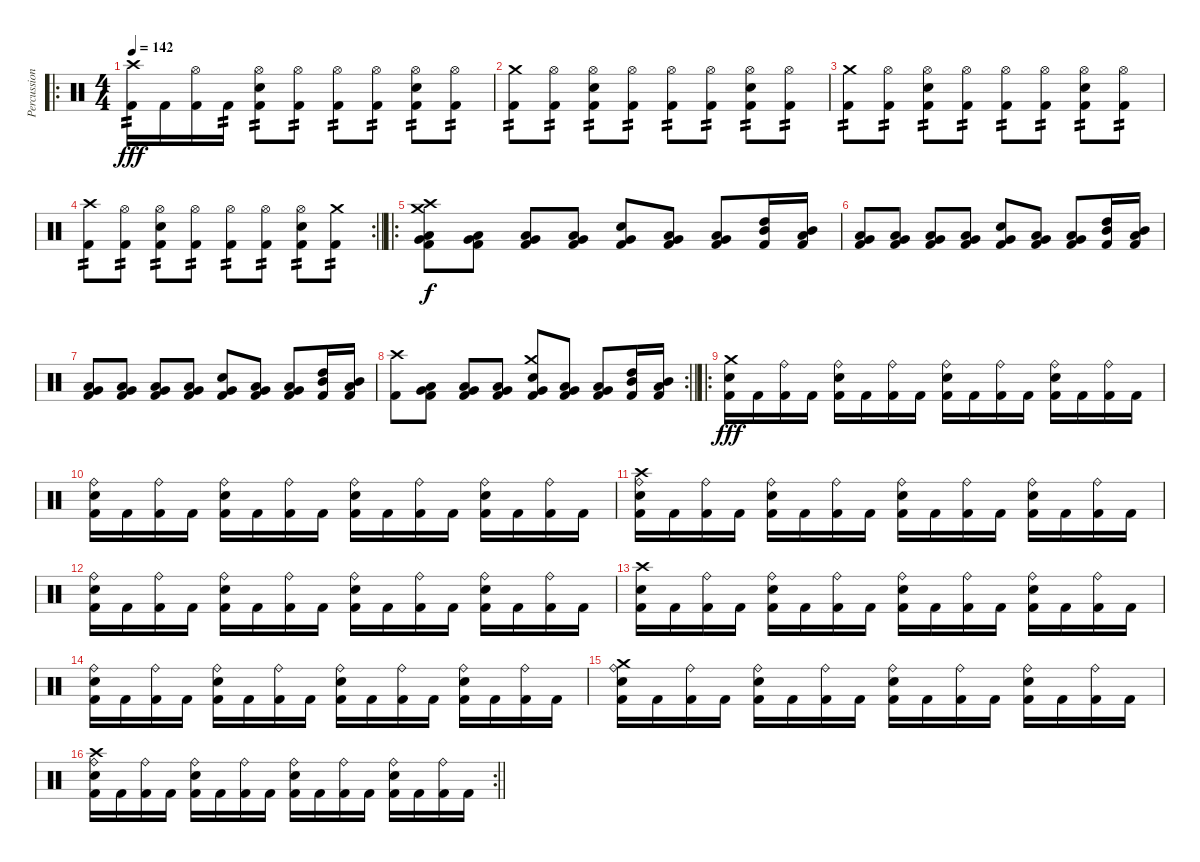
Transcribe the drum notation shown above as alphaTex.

\track ("Percussions" "Percussion") {instrument percussion}
\staff {score}
\articulation defaults
\ro
\ts (4 4)
\section ("" "")
\tempo 142
\clef neutral
\ks c
("Crash high (hit)" "Kick (hit) 2").16{tp 2 dy fff} "Kick (hit) 2".16 ("Hi-Hat (open)" "Kick (hit) 2").16 "Kick (hit) 2".16{tp 2} ("Hi-Hat (open)" "Electric Snare (hit)" "Kick (hit) 2").8{tp 2} ("Hi-Hat (open)" "Kick (hit) 2").8{tp 2} ("Hi-Hat (open)" "Kick (hit) 2").8{tp 2} ("Hi-Hat (open)" "Kick (hit) 2").8{tp 2} ("Hi-Hat (open)" "Electric Snare (hit)" "Kick (hit) 2").8{tp 2} ("Hi-Hat (open)" "Kick (hit) 2").8{tp 2} |
("Crash medium (hit)" "Kick (hit) 2").8{tp 2} ("Hi-Hat (open)" "Kick (hit) 2").8{tp 2} ("Hi-Hat (open)" "Electric Snare (hit)" "Kick (hit) 2").8{tp 2} ("Hi-Hat (open)" "Kick (hit) 2").8{tp 2} ("Hi-Hat (open)" "Kick (hit) 2").8{tp 2} ("Hi-Hat (open)" "Kick (hit) 2").8{tp 2} ("Hi-Hat (open)" "Electric Snare (hit)" "Kick (hit) 2").8{tp 2} ("Hi-Hat (open)" "Kick (hit) 2").8{tp 2} |
("Crash medium (hit)" "Kick (hit) 2").8{tp 2} ("Hi-Hat (open)" "Kick (hit) 2").8{tp 2} ("Hi-Hat (open)" "Electric Snare (hit)" "Kick (hit) 2").8{tp 2} ("Hi-Hat (open)" "Kick (hit) 2").8{tp 2} ("Hi-Hat (open)" "Kick (hit) 2").8{tp 2} ("Hi-Hat (open)" "Kick (hit) 2").8{tp 2} ("Hi-Hat (open)" "Electric Snare (hit)" "Kick (hit) 2").8{tp 2} ("Hi-Hat (open)" "Kick (hit) 2").8{tp 2} |
\rc 2
\barLineRight lightlight
("Crash high (hit)" "Kick (hit) 2").8{tp 2} ("Hi-Hat (open)" "Kick (hit) 2").8{tp 2} ("Hi-Hat (open)" "Electric Snare (hit)" "Kick (hit) 2").8{tp 2} ("Hi-Hat (open)" "Kick (hit) 2").8{tp 2} ("Hi-Hat (open)" "Kick (hit) 2").8{tp 2} ("Hi-Hat (open)" "Kick (hit) 2").8{tp 2} ("Hi-Hat (open)" "Electric Snare (hit)" "Kick (hit) 2").8{tp 2} ("Crash medium (hit)" "Kick (hit) 2").8{tp 2} |
\ro
\section ("" "")
("Crash medium (hit)" "Crash high (hit)" "Low Tom (hit)" "Very Low Tom (hit)" "Kick (hit) 2").8{dy f} ("Low Tom (hit)" "Very Low Tom (hit)" "Kick (hit) 2").8 ("Low Tom (hit)" "Very Low Tom (hit)" "Kick (hit) 2").8 ("Low Tom (hit)" "Very Low Tom (hit)" "Kick (hit) 2").8 ("Very Low Tom (hit)" "Electric Snare (hit)" "Kick (hit) 2").8 ("Low Tom (hit)" "Very Low Tom (hit)" "Kick (hit) 2").8 ("Low Tom (hit)" "Very Low Tom (hit)" "Kick (hit) 2").8 ("High Tom (hit)" "Mid Tom (hit)" "Kick (hit) 2").16 ("Low Tom (hit)" "Mid Tom (hit)" "Kick (hit) 2").16 |
("Low Tom (hit)" "Very Low Tom (hit)" "Kick (hit) 2").8 ("Low Tom (hit)" "Very Low Tom (hit)" "Kick (hit) 2").8 ("Low Tom (hit)" "Very Low Tom (hit)" "Kick (hit) 2").8 ("Low Tom (hit)" "Very Low Tom (hit)" "Kick (hit) 2").8 ("Very Low Tom (hit)" "Electric Snare (hit)" "Kick (hit) 2").8 ("Low Tom (hit)" "Very Low Tom (hit)" "Kick (hit) 2").8 ("Low Tom (hit)" "Very Low Tom (hit)" "Kick (hit) 2").8 ("High Tom (hit)" "Mid Tom (hit)" "Kick (hit) 2").16 ("Low Tom (hit)" "Mid Tom (hit)" "Kick (hit) 2").16 |
("Low Tom (hit)" "Very Low Tom (hit)" "Kick (hit) 2").8 ("Low Tom (hit)" "Very Low Tom (hit)" "Kick (hit) 2").8 ("Low Tom (hit)" "Very Low Tom (hit)" "Kick (hit) 2").8 ("Low Tom (hit)" "Very Low Tom (hit)" "Kick (hit) 2").8 ("Very Low Tom (hit)" "Electric Snare (hit)" "Kick (hit) 2").8 ("Low Tom (hit)" "Very Low Tom (hit)" "Kick (hit) 2").8 ("Low Tom (hit)" "Very Low Tom (hit)" "Kick (hit) 2").8 ("High Tom (hit)" "Mid Tom (hit)" "Kick (hit) 2").16 ("Low Tom (hit)" "Mid Tom (hit)" "Kick (hit) 2").16 |
\rc 2
\barLineRight lightlight
("Crash high (hit)" "Kick (hit) 2").8 ("Low Tom (hit)" "Very Low Tom (hit)" "Kick (hit) 2").8 ("Low Tom (hit)" "Very Low Tom (hit)" "Kick (hit) 2").8 ("Low Tom (hit)" "Very Low Tom (hit)" "Kick (hit) 2").8 ("Crash medium (hit)" "Very Low Tom (hit)" "Electric Snare (hit)" "Kick (hit) 2").8 ("Low Tom (hit)" "Very Low Tom (hit)" "Kick (hit) 2").8 ("Low Tom (hit)" "Very Low Tom (hit)" "Kick (hit) 2").8 ("High Tom (hit)" "Mid Tom (hit)" "Kick (hit) 2").16 ("Low Tom (hit)" "Mid Tom (hit)" "Kick (hit) 2").16 |
\ro
\section ("" "")
("Crash medium (hit)" "Electric Snare (hit)" "Kick (hit) 2").16{dy fff} "Kick (hit) 2".16 ("Ride (bell)" "Kick (hit) 2").16 "Kick (hit) 2".16 ("Ride (bell)" "Electric Snare (hit)" "Kick (hit) 2").16 "Kick (hit) 2".16 ("Ride (bell)" "Kick (hit) 2").16 "Kick (hit) 2".16 ("Ride (bell)" "Electric Snare (hit)" "Kick (hit) 2").16 "Kick (hit) 2".16 ("Ride (bell)" "Kick (hit) 2").16 "Kick (hit) 2".16 ("Ride (bell)" "Electric Snare (hit)" "Kick (hit) 2").16 "Kick (hit) 2".16 ("Ride (bell)" "Kick (hit) 2").16 "Kick (hit) 2".16 |
("Ride (bell)" "Electric Snare (hit)" "Kick (hit) 2").16 "Kick (hit) 2".16 ("Ride (bell)" "Kick (hit) 2").16 "Kick (hit) 2".16 ("Ride (bell)" "Electric Snare (hit)" "Kick (hit) 2").16 "Kick (hit) 2".16 ("Ride (bell)" "Kick (hit) 2").16 "Kick (hit) 2".16 ("Ride (bell)" "Electric Snare (hit)" "Kick (hit) 2").16 "Kick (hit) 2".16 ("Ride (bell)" "Kick (hit) 2").16 "Kick (hit) 2".16 ("Ride (bell)" "Electric Snare (hit)" "Kick (hit) 2").16 "Kick (hit) 2".16 ("Ride (bell)" "Kick (hit) 2").16 "Kick (hit) 2".16 |
("Ride (bell)" "Crash high (hit)" "Electric Snare (hit)" "Kick (hit) 2").16 "Kick (hit) 2".16 ("Ride (bell)" "Kick (hit) 2").16 "Kick (hit) 2".16 ("Ride (bell)" "Electric Snare (hit)" "Kick (hit) 2").16 "Kick (hit) 2".16 ("Ride (bell)" "Kick (hit) 2").16 "Kick (hit) 2".16 ("Ride (bell)" "Electric Snare (hit)" "Kick (hit) 2").16 "Kick (hit) 2".16 ("Ride (bell)" "Kick (hit) 2").16 "Kick (hit) 2".16 ("Ride (bell)" "Electric Snare (hit)" "Kick (hit) 2").16 "Kick (hit) 2".16 ("Ride (bell)" "Kick (hit) 2").16 "Kick (hit) 2".16 |
("Ride (bell)" "Electric Snare (hit)" "Kick (hit) 2").16 "Kick (hit) 2".16 ("Ride (bell)" "Kick (hit) 2").16 "Kick (hit) 2".16 ("Ride (bell)" "Electric Snare (hit)" "Kick (hit) 2").16 "Kick (hit) 2".16 ("Ride (bell)" "Kick (hit) 2").16 "Kick (hit) 2".16 ("Ride (bell)" "Electric Snare (hit)" "Kick (hit) 2").16 "Kick (hit) 2".16 ("Ride (bell)" "Kick (hit) 2").16 "Kick (hit) 2".16 ("Ride (bell)" "Electric Snare (hit)" "Kick (hit) 2").16 "Kick (hit) 2".16 ("Ride (bell)" "Kick (hit) 2").16 "Kick (hit) 2".16 |
("Crash high (hit)" "Electric Snare (hit)" "Kick (hit) 2").16 "Kick (hit) 2".16 ("Ride (bell)" "Kick (hit) 2").16 "Kick (hit) 2".16 ("Ride (bell)" "Electric Snare (hit)" "Kick (hit) 2").16 "Kick (hit) 2".16 ("Ride (bell)" "Kick (hit) 2").16 "Kick (hit) 2".16 ("Ride (bell)" "Electric Snare (hit)" "Kick (hit) 2").16 "Kick (hit) 2".16 ("Ride (bell)" "Kick (hit) 2").16 "Kick (hit) 2".16 ("Ride (bell)" "Electric Snare (hit)" "Kick (hit) 2").16 "Kick (hit) 2".16 ("Ride (bell)" "Kick (hit) 2").16 "Kick (hit) 2".16 |
("Ride (bell)" "Electric Snare (hit)" "Kick (hit) 2").16 "Kick (hit) 2".16 ("Ride (bell)" "Kick (hit) 2").16 "Kick (hit) 2".16 ("Ride (bell)" "Electric Snare (hit)" "Kick (hit) 2").16 "Kick (hit) 2".16 ("Ride (bell)" "Kick (hit) 2").16 "Kick (hit) 2".16 ("Ride (bell)" "Electric Snare (hit)" "Kick (hit) 2").16 "Kick (hit) 2".16 ("Ride (bell)" "Kick (hit) 2").16 "Kick (hit) 2".16 ("Ride (bell)" "Electric Snare (hit)" "Kick (hit) 2").16 "Kick (hit) 2".16 ("Ride (bell)" "Kick (hit) 2").16 "Kick (hit) 2".16 |
("Crash medium (hit)" "Ride (bell)" "Electric Snare (hit)" "Kick (hit) 2").16 "Kick (hit) 2".16 ("Ride (bell)" "Kick (hit) 2").16 "Kick (hit) 2".16 ("Ride (bell)" "Electric Snare (hit)" "Kick (hit) 2").16 "Kick (hit) 2".16 ("Ride (bell)" "Kick (hit) 2").16 "Kick (hit) 2".16 ("Ride (bell)" "Electric Snare (hit)" "Kick (hit) 2").16 "Kick (hit) 2".16 ("Ride (bell)" "Kick (hit) 2").16 "Kick (hit) 2".16 ("Ride (bell)" "Electric Snare (hit)" "Kick (hit) 2").16 "Kick (hit) 2".16 ("Ride (bell)" "Kick (hit) 2").16 "Kick (hit) 2".16 |
\rc 2
\barLineRight lightlight
("Ride (bell)" "Crash high (hit)" "Electric Snare (hit)" "Kick (hit) 2").16 "Kick (hit) 2".16 ("Ride (bell)" "Kick (hit) 2").16 "Kick (hit) 2".16 ("Ride (bell)" "Electric Snare (hit)" "Kick (hit) 2").16 "Kick (hit) 2".16 ("Ride (bell)" "Kick (hit) 2").16 "Kick (hit) 2".16 ("Ride (bell)" "Electric Snare (hit)" "Kick (hit) 2").16 "Kick (hit) 2".16 ("Ride (bell)" "Kick (hit) 2").16 "Kick (hit) 2".16 ("Ride (bell)" "Electric Snare (hit)" "Kick (hit) 2").16 "Kick (hit) 2".16 ("Ride (bell)" "Kick (hit) 2").16 "Kick (hit) 2".16
